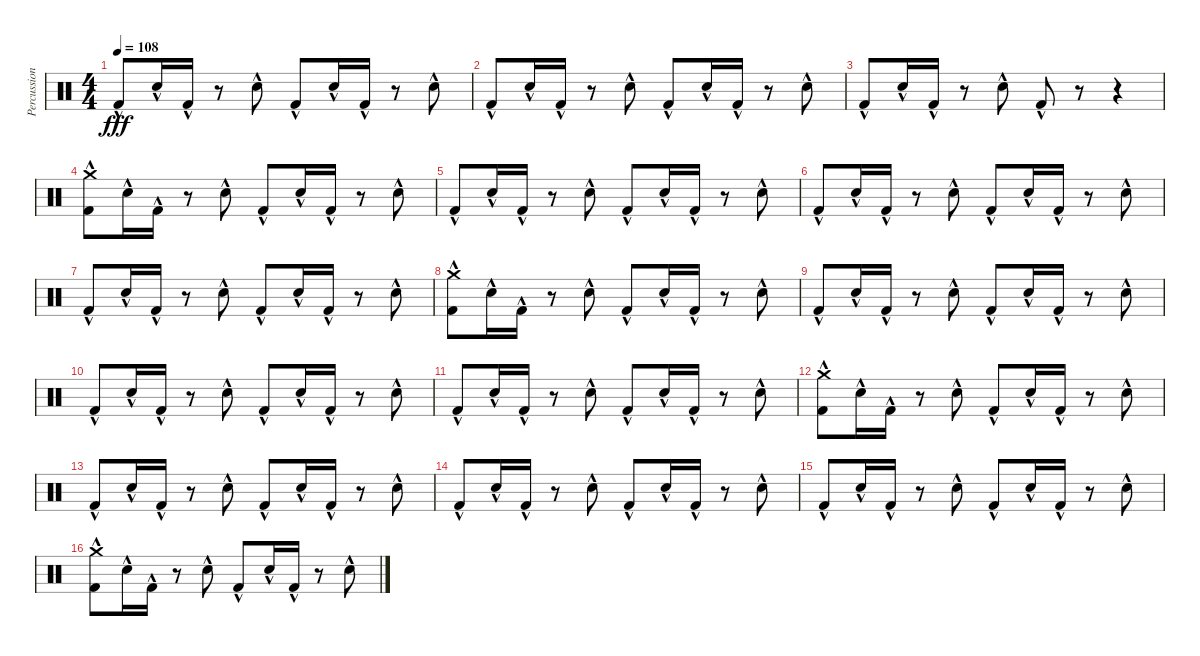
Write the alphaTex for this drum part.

\track ("Percussioni" "Percussion") {instrument percussion}
\staff {score}
\articulation defaults
\ts (4 4)
\tempo 108
\clef neutral
\ks c "Kick (hit) 2"{hac}.8{dy fff} "Snare (hit) 2"{hac}.16 "Kick (hit) 2"{hac}.16
r.8 "Snare (hit) 2"{hac}.8 "Kick (hit) 2"{hac}.8 "Snare (hit) 2"{hac}.16 "Kick (hit) 2"{hac}.16 r.8 "Snare (hit) 2"{hac}.8 |
"Kick (hit) 2"{hac}.8 "Snare (hit) 2"{hac}.16 "Kick (hit) 2"{hac}.16 r.8 "Snare (hit) 2"{hac}.8 "Kick (hit) 2"{hac}.8 "Snare (hit) 2"{hac}.16 "Kick (hit) 2"{hac}.16 r.8 "Snare (hit) 2"{hac}.8 |
"Kick (hit) 2"{hac}.8 "Snare (hit) 2"{hac}.16 "Kick (hit) 2"{hac}.16 r.8 "Snare (hit) 2"{hac}.8 "Kick (hit) 2"{hac}.8 r.8 r.4 |
("Crash medium (hit)" "Kick (hit) 2"{hac}).8 "Snare (hit) 2"{hac}.16 "Kick (hit) 2"{hac}.16 r.8 "Snare (hit) 2"{hac}.8 "Kick (hit) 2"{hac}.8 "Snare (hit) 2"{hac}.16 "Kick (hit) 2"{hac}.16 r.8 "Snare (hit) 2"{hac}.8 |
"Kick (hit) 2"{hac}.8 "Snare (hit) 2"{hac}.16 "Kick (hit) 2"{hac}.16 r.8 "Snare (hit) 2"{hac}.8 "Kick (hit) 2"{hac}.8 "Snare (hit) 2"{hac}.16 "Kick (hit) 2"{hac}.16 r.8 "Snare (hit) 2"{hac}.8 |
"Kick (hit) 2"{hac}.8 "Snare (hit) 2"{hac}.16 "Kick (hit) 2"{hac}.16 r.8 "Snare (hit) 2"{hac}.8 "Kick (hit) 2"{hac}.8 "Snare (hit) 2"{hac}.16 "Kick (hit) 2"{hac}.16 r.8 "Snare (hit) 2"{hac}.8 |
"Kick (hit) 2"{hac}.8 "Snare (hit) 2"{hac}.16 "Kick (hit) 2"{hac}.16 r.8 "Snare (hit) 2"{hac}.8 "Kick (hit) 2"{hac}.8 "Snare (hit) 2"{hac}.16 "Kick (hit) 2"{hac}.16 r.8 "Snare (hit) 2"{hac}.8 |
("Crash medium (hit)" "Kick (hit) 2"{hac}).8 "Snare (hit) 2"{hac}.16 "Kick (hit) 2"{hac}.16 r.8 "Snare (hit) 2"{hac}.8 "Kick (hit) 2"{hac}.8 "Snare (hit) 2"{hac}.16 "Kick (hit) 2"{hac}.16 r.8 "Snare (hit) 2"{hac}.8 |
"Kick (hit) 2"{hac}.8 "Snare (hit) 2"{hac}.16 "Kick (hit) 2"{hac}.16 r.8 "Snare (hit) 2"{hac}.8 "Kick (hit) 2"{hac}.8 "Snare (hit) 2"{hac}.16 "Kick (hit) 2"{hac}.16 r.8 "Snare (hit) 2"{hac}.8 |
"Kick (hit) 2"{hac}.8 "Snare (hit) 2"{hac}.16 "Kick (hit) 2"{hac}.16 r.8 "Snare (hit) 2"{hac}.8 "Kick (hit) 2"{hac}.8 "Snare (hit) 2"{hac}.16 "Kick (hit) 2"{hac}.16 r.8 "Snare (hit) 2"{hac}.8 |
"Kick (hit) 2"{hac}.8 "Snare (hit) 2"{hac}.16 "Kick (hit) 2"{hac}.16 r.8 "Snare (hit) 2"{hac}.8 "Kick (hit) 2"{hac}.8 "Snare (hit) 2"{hac}.16 "Kick (hit) 2"{hac}.16 r.8 "Snare (hit) 2"{hac}.8 |
("Crash medium (hit)" "Kick (hit) 2"{hac}).8 "Snare (hit) 2"{hac}.16 "Kick (hit) 2"{hac}.16 r.8 "Snare (hit) 2"{hac}.8 "Kick (hit) 2"{hac}.8 "Snare (hit) 2"{hac}.16 "Kick (hit) 2"{hac}.16 r.8 "Snare (hit) 2"{hac}.8 |
"Kick (hit) 2"{hac}.8 "Snare (hit) 2"{hac}.16 "Kick (hit) 2"{hac}.16 r.8 "Snare (hit) 2"{hac}.8 "Kick (hit) 2"{hac}.8 "Snare (hit) 2"{hac}.16 "Kick (hit) 2"{hac}.16 r.8 "Snare (hit) 2"{hac}.8 |
"Kick (hit) 2"{hac}.8 "Snare (hit) 2"{hac}.16 "Kick (hit) 2"{hac}.16 r.8 "Snare (hit) 2"{hac}.8 "Kick (hit) 2"{hac}.8 "Snare (hit) 2"{hac}.16 "Kick (hit) 2"{hac}.16 r.8 "Snare (hit) 2"{hac}.8 |
"Kick (hit) 2"{hac}.8 "Snare (hit) 2"{hac}.16 "Kick (hit) 2"{hac}.16 r.8 "Snare (hit) 2"{hac}.8 "Kick (hit) 2"{hac}.8 "Snare (hit) 2"{hac}.16 "Kick (hit) 2"{hac}.16 r.8 "Snare (hit) 2"{hac}.8 |
("Crash medium (hit)" "Kick (hit) 2"{hac}).8 "Snare (hit) 2"{hac}.16 "Kick (hit) 2"{hac}.16 r.8 "Snare (hit) 2"{hac}.8 "Kick (hit) 2"{hac}.8 "Snare (hit) 2"{hac}.16 "Kick (hit) 2"{hac}.16 r.8 "Snare (hit) 2"{hac}.8
